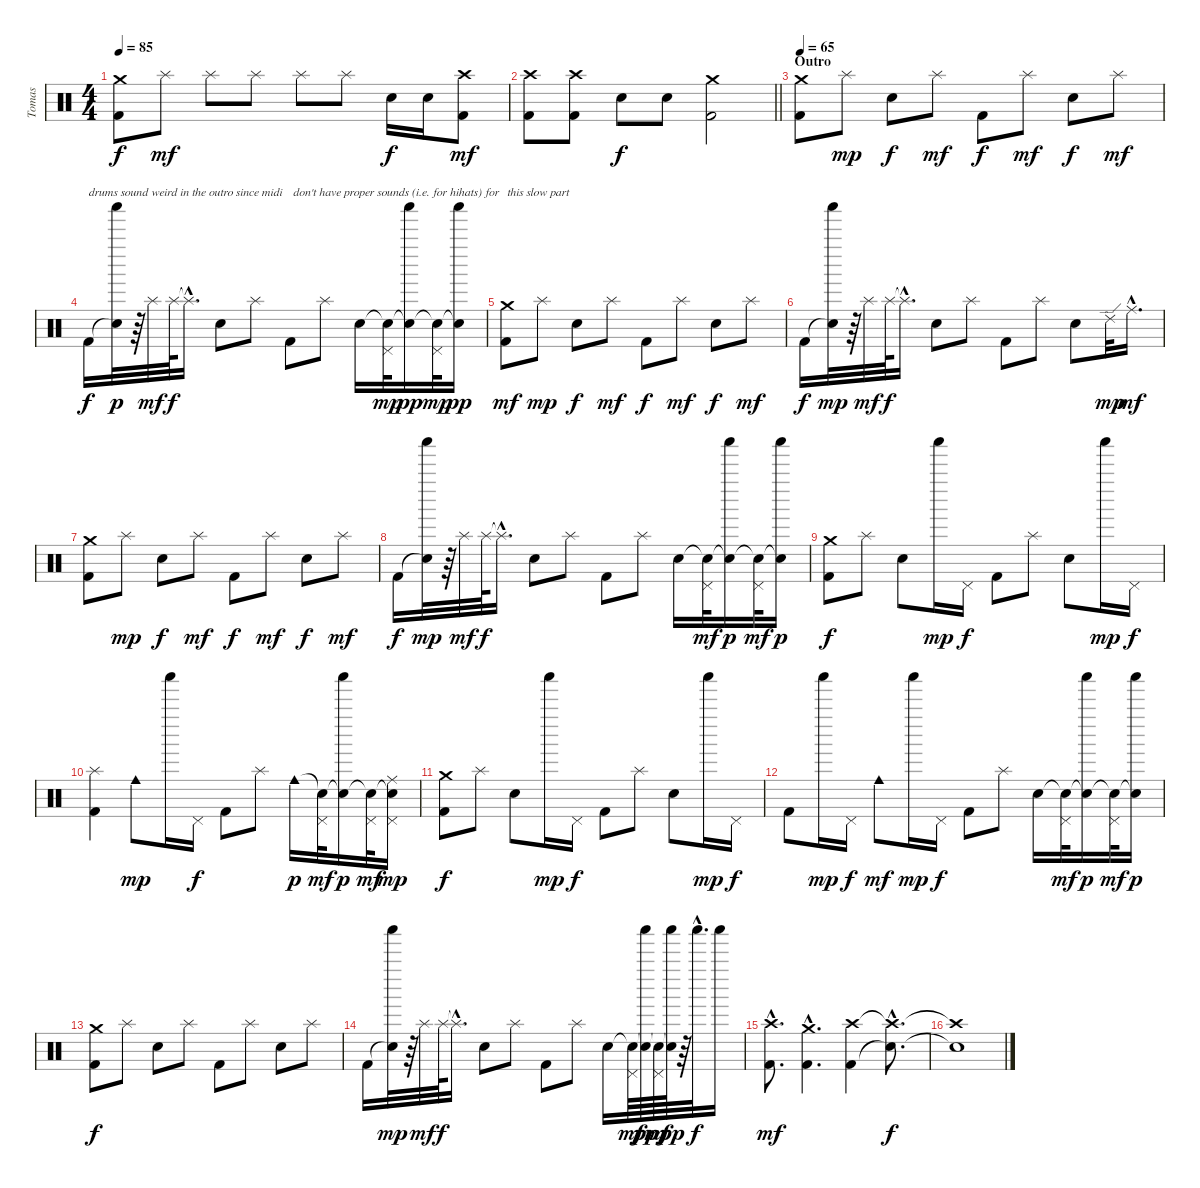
\track ("Tomas" "Tomas") {instrument percussion}
\staff {score}
\articulation defaults
\ts (4 4)
\tempo 85
\clef neutral
\ks c
("Kick (hit) 2" "Crash medium (hit)").8{dy f} "Splash (hit)".8{dy mf} "Splash (hit)".8 "Splash (hit)".8 "Splash (hit)".8 "Splash (hit)".8 "Electric Snare (hit)".16{dy f} "Electric Snare (hit)".16 ("Kick (hit) 2" "Crash high (hit)").8{dy mf} |
\barLineRight lightlight
("Kick (hit) 2" "Crash high (hit)").8 ("Kick (hit) 2" "Crash high (hit)").8 "Electric Snare (hit)".8{dy f} "Electric Snare (hit)".8 ("Kick (hit) 2" "Crash medium (hit)").2 |
\section ("" "Outro")
\tempo 65
("Kick (hit) 2" "Crash medium (hit)").8{volume 11} "Splash (hit)".8{dy mp} "Electric Snare (hit)".8{dy f} "Splash (hit)".8{dy mf} "Kick (hit) 2".8{dy f} "Splash (hit)".8{dy mf} "Electric Snare (hit)".8{dy f} "Splash (hit)".8{dy mf} |
"Kick (hit) 2".16{txt "drums sound weird in the outro since midi" dy f} ("Snare (hit)"{t} "Shaker (hit)").32{dy p} r.64 "Splash (hit)".32{dy mf} "Splash (hit)".64{dy f} "Splash (hit)"{hac t}.16{d} "Electric Snare (hit)".8 "Splash (hit)".8 "Kick (hit) 2".8{txt " don't have proper sounds (i.e. for hihats) for"} "Splash (hit)".8 "Electric Snare (hit)".16 ("Snare (hit)"{t} "Pedal Hi-Hat (hit)").32{dy mp} ("Snare (hit)"{t} "Shaker (hit)").16{dy pp} ("Snare (hit)"{t} "Pedal Hi-Hat (hit)").32{dy mp} ("Snare (hit)"{t} "Shaker (hit)").16{dy pp} |
("Kick (hit) 2" "Crash medium (hit)").8{txt "this slow part" dy mf} "Splash (hit)".8{dy mp} "Electric Snare (hit)".8{dy f} "Splash (hit)".8{dy mf} "Kick (hit) 2".8{dy f} "Splash (hit)".8{dy mf} "Electric Snare (hit)".8{dy f} "Splash (hit)".8{dy mf} |
"Kick (hit) 2".16{dy f} ("Snare (hit)"{t} "Shaker (hit)").32{dy mp} r.64 "Splash (hit)".32{dy mf} "Splash (hit)".64{dy f} "Splash (hit)"{hac t}.16{d} "Electric Snare (hit)".8 "Splash (hit)".8 "Kick (hit) 2".8 "Splash (hit)".8 "Electric Snare (hit)".8 "Ride (edge) 2".32{dy mp} "Ride (middle)"{hac}.16{d dy mf} |
("Kick (hit) 2" "Crash medium (hit)").8 "Splash (hit)".8{dy mp} "Electric Snare (hit)".8{dy f} "Splash (hit)".8{dy mf} "Kick (hit) 2".8{dy f} "Splash (hit)".8{dy mf} "Electric Snare (hit)".8{dy f} "Splash (hit)".8{dy mf} |
"Kick (hit) 2".16{dy f} ("Snare (hit)"{t} "Shaker (hit)").32{dy mp} r.64 "Splash (hit)".32{dy mf} "Splash (hit)".64{dy f} "Splash (hit)"{hac t}.16{d} "Electric Snare (hit)".8 "Splash (hit)".8 "Kick (hit) 2".8 "Splash (hit)".8 "Electric Snare (hit)".16 ("Snare (hit)"{t} "Pedal Hi-Hat (hit)").32{dy mf} ("Snare (hit)"{t} "Shaker (hit)").16{dy p} ("Snare (hit)"{t} "Pedal Hi-Hat (hit)").32{dy mf} ("Snare (hit)"{t} "Shaker (hit)").16{dy p} |
("Kick (hit) 2" "Crash medium (hit)").8{dy f} "Splash (hit)".8 "Electric Snare (hit)".8 "Shaker (hit)".16{dy mp} "Pedal Hi-Hat (hit)".16{dy f} "Kick (hit) 2".8 "Splash (hit)".8 "Electric Snare (hit)".8 "Shaker (hit)".16{dy mp} "Pedal Hi-Hat (hit)".16{dy f} |
("Kick (hit) 2" "Splash (hit)").4 "Cowbell medium (hit)".8{dy mp} "Shaker (hit)".16 "Pedal Hi-Hat (hit)".16{dy f} "Kick (hit) 2".8 "Splash (hit)".8 "Cowbell medium (hit)".16{dy p} ("Snare (hit)"{t} "Pedal Hi-Hat (hit)").32{dy mf} ("Snare (hit)"{t} "Shaker (hit)").16{dy p} ("Snare (hit)"{t} "Pedal Hi-Hat (hit)").32{dy mf} ("Snare (hit)"{t} "Ride (middle)" "Pedal Hi-Hat (hit)").16{dy mp} |
("Kick (hit) 2" "Crash medium (hit)").8{dy f} "Splash (hit)".8 "Electric Snare (hit)".8 "Shaker (hit)".16{dy mp} "Pedal Hi-Hat (hit)".16{dy f} "Kick (hit) 2".8 "Splash (hit)".8 "Electric Snare (hit)".8 "Shaker (hit)".16{dy mp} "Pedal Hi-Hat (hit)".16{dy f} |
"Kick (hit) 2".8 "Shaker (hit)".16{dy mp} "Pedal Hi-Hat (hit)".16{dy f} "Cowbell medium (hit)".8{dy mf} "Shaker (hit)".16{dy mp} "Pedal Hi-Hat (hit)".16{dy f} "Kick (hit) 2".8 "Splash (hit)".8 "Electric Snare (hit)".16 ("Snare (hit)"{t} "Pedal Hi-Hat (hit)").32{dy mf} ("Snare (hit)"{t} "Shaker (hit)").16{dy p} ("Snare (hit)"{t} "Pedal Hi-Hat (hit)").32{dy mf} ("Snare (hit)"{t} "Shaker (hit)").16{dy p} |
("Kick (hit) 2" "Crash medium (hit)").8{dy f} "Splash (hit)".8 "Electric Snare (hit)".8 "Splash (hit)".8 "Kick (hit) 2".8 "Splash (hit)".8 "Electric Snare (hit)".8 "Splash (hit)".8 |
"Kick (hit) 2".16 ("Snare (hit)"{t} "Shaker (hit)").32{dy mp} r.64 "Splash (hit)".32{dy mf} "Splash (hit)".64{dy f} "Splash (hit)"{hac t}.16{d} "Electric Snare (hit)".8 "Splash (hit)".8 "Kick (hit) 2".8 "Splash (hit)".8 "Electric Snare (hit)".16 ("Snare (hit)"{t} "Pedal Hi-Hat (hit)").64{dy mf} ("Snare (hit)"{t} "Shaker (hit)").64{dy pp} ("Snare (hit)"{t} "Pedal Hi-Hat (hit)").64{dy mf} ("Snare (hit)"{t} "Shaker (hit)").64{dy pp} r.64 "Shaker (hit)"{hac}.32{d dy f} "Shaker (hit)".16 |
("Kick (hit) 2"{hac} "Crash high (hit)"{hac}).8{d dy mf} ("Kick (hit) 2"{hac} "Crash medium (hit)"{hac}).4{d} ("Kick (hit) 2" "Crash high (hit)").4 ("Snare (hit)"{hac t} "Crash high (hit)"{hac t}).8{d dy f} |
("Snare (hit)"{t} "Crash high (hit)"{t}).1
